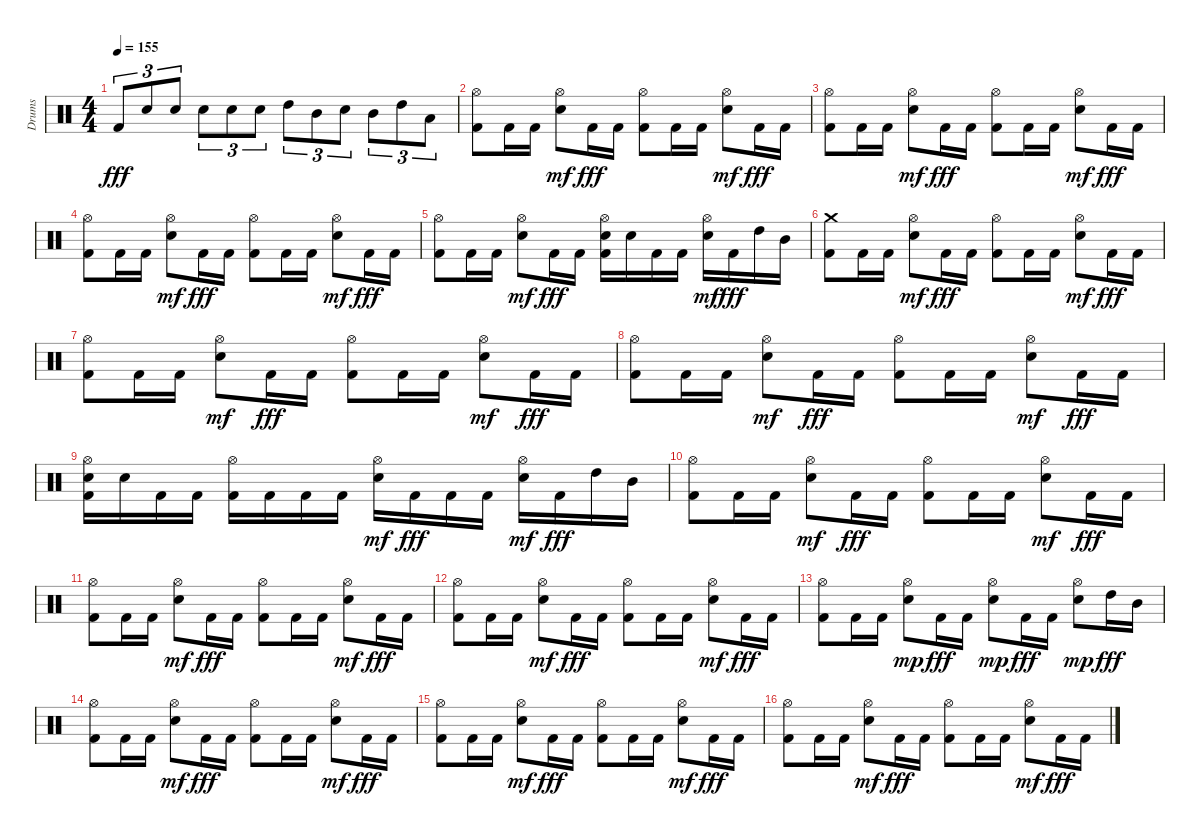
\track ("Drums" "Drums") {instrument percussion}
\staff {score}
\articulation defaults
\ts (4 4)
\tempo 155
\clef neutral
\ks c "Kick (hit) 2".8{tu (3 2) dy fff} "Electric Snare (hit)".8{tu (3 2)} "Electric Snare (hit)".8{tu (3 2)} "Electric Snare (hit)".8{tu (3 2)} "Electric Snare (hit)".8{tu (3 2)} "Electric Snare (hit)".8{tu (3 2)} "High Tom (hit)".8{tu (3 2)} "Mid Tom (hit)".8{tu (3 2)} "Electric Snare (hit)".8{tu (3 2)} "Mid Tom (hit)".8{tu (3 2)} "High Tom (hit)".8{tu (3 2)} "Low Tom (hit)".8{tu (3 2)}
|
("Hi-Hat (open)" "Kick (hit) 2").8 "Kick (hit) 2".16 "Kick (hit) 2".16 ("Electric Snare (hit)" "Hi-Hat (open)").8{dy mf} "Kick (hit) 2".16{dy fff} "Kick (hit) 2".16 ("Hi-Hat (open)" "Kick (hit) 2").8 "Kick (hit) 2".16 "Kick (hit) 2".16 ("Electric Snare (hit)" "Hi-Hat (open)").8{dy mf} "Kick (hit) 2".16{dy fff} "Kick (hit) 2".16 |
("Hi-Hat (open)" "Kick (hit) 2").8 "Kick (hit) 2".16 "Kick (hit) 2".16 ("Electric Snare (hit)" "Hi-Hat (open)").8{dy mf} "Kick (hit) 2".16{dy fff} "Kick (hit) 2".16 ("Hi-Hat (open)" "Kick (hit) 2").8 "Kick (hit) 2".16 "Kick (hit) 2".16 ("Electric Snare (hit)" "Hi-Hat (open)").8{dy mf} "Kick (hit) 2".16{dy fff} "Kick (hit) 2".16 |
("Hi-Hat (open)" "Kick (hit) 2").8 "Kick (hit) 2".16 "Kick (hit) 2".16 ("Electric Snare (hit)" "Hi-Hat (open)").8{dy mf} "Kick (hit) 2".16{dy fff} "Kick (hit) 2".16 ("Hi-Hat (open)" "Kick (hit) 2").8 "Kick (hit) 2".16 "Kick (hit) 2".16 ("Electric Snare (hit)" "Hi-Hat (open)").8{dy mf} "Kick (hit) 2".16{dy fff} "Kick (hit) 2".16 |
("Hi-Hat (open)" "Kick (hit) 2").8 "Kick (hit) 2".16 "Kick (hit) 2".16 ("Electric Snare (hit)" "Hi-Hat (open)").8{dy mf} "Kick (hit) 2".16{dy fff} "Kick (hit) 2".16 ("Electric Snare (hit)" "Hi-Hat (open)" "Kick (hit) 2").16 "Electric Snare (hit)".16 "Kick (hit) 2".16 "Kick (hit) 2".16 ("Electric Snare (hit)" "Hi-Hat (open)").16{dy mf} "Kick (hit) 2".16{dy fff} "High Tom (hit)".16 "Mid Tom (hit)".16 |
("Crash medium (hit)" "Kick (hit) 2").8 "Kick (hit) 2".16 "Kick (hit) 2".16 ("Electric Snare (hit)" "Hi-Hat (open)").8{dy mf} "Kick (hit) 2".16{dy fff} "Kick (hit) 2".16 ("Hi-Hat (open)" "Kick (hit) 2").8 "Kick (hit) 2".16 "Kick (hit) 2".16 ("Electric Snare (hit)" "Hi-Hat (open)").8{dy mf} "Kick (hit) 2".16{dy fff} "Kick (hit) 2".16 |
("Hi-Hat (open)" "Kick (hit) 2").8 "Kick (hit) 2".16 "Kick (hit) 2".16 ("Electric Snare (hit)" "Hi-Hat (open)").8{dy mf} "Kick (hit) 2".16{dy fff} "Kick (hit) 2".16 ("Hi-Hat (open)" "Kick (hit) 2").8 "Kick (hit) 2".16 "Kick (hit) 2".16 ("Electric Snare (hit)" "Hi-Hat (open)").8{dy mf} "Kick (hit) 2".16{dy fff} "Kick (hit) 2".16 |
("Hi-Hat (open)" "Kick (hit) 2").8 "Kick (hit) 2".16 "Kick (hit) 2".16 ("Electric Snare (hit)" "Hi-Hat (open)").8{dy mf} "Kick (hit) 2".16{dy fff} "Kick (hit) 2".16 ("Hi-Hat (open)" "Kick (hit) 2").8 "Kick (hit) 2".16 "Kick (hit) 2".16 ("Electric Snare (hit)" "Hi-Hat (open)").8{dy mf} "Kick (hit) 2".16{dy fff} "Kick (hit) 2".16 |
("Electric Snare (hit)" "Hi-Hat (open)" "Kick (hit) 2").16 "Electric Snare (hit)".16 "Kick (hit) 2".16 "Kick (hit) 2".16 ("Hi-Hat (open)" "Kick (hit) 2").16 "Kick (hit) 2".16 "Kick (hit) 2".16 "Kick (hit) 2".16 ("Electric Snare (hit)" "Hi-Hat (open)").16{dy mf} "Kick (hit) 2".16{dy fff} "Kick (hit) 2".16 "Kick (hit) 2".16 ("Electric Snare (hit)" "Hi-Hat (open)").16{dy mf} "Kick (hit) 2".16{dy fff} "High Tom (hit)".16 "Mid Tom (hit)".16 |
("Hi-Hat (open)" "Kick (hit) 2").8 "Kick (hit) 2".16 "Kick (hit) 2".16 ("Electric Snare (hit)" "Hi-Hat (open)").8{dy mf} "Kick (hit) 2".16{dy fff} "Kick (hit) 2".16 ("Hi-Hat (open)" "Kick (hit) 2").8 "Kick (hit) 2".16 "Kick (hit) 2".16 ("Electric Snare (hit)" "Hi-Hat (open)").8{dy mf} "Kick (hit) 2".16{dy fff} "Kick (hit) 2".16 |
("Hi-Hat (open)" "Kick (hit) 2").8 "Kick (hit) 2".16 "Kick (hit) 2".16 ("Electric Snare (hit)" "Hi-Hat (open)").8{dy mf} "Kick (hit) 2".16{dy fff} "Kick (hit) 2".16 ("Hi-Hat (open)" "Kick (hit) 2").8 "Kick (hit) 2".16 "Kick (hit) 2".16 ("Electric Snare (hit)" "Hi-Hat (open)").8{dy mf} "Kick (hit) 2".16{dy fff} "Kick (hit) 2".16 |
("Hi-Hat (open)" "Kick (hit) 2").8 "Kick (hit) 2".16 "Kick (hit) 2".16 ("Electric Snare (hit)" "Hi-Hat (open)").8{dy mf} "Kick (hit) 2".16{dy fff} "Kick (hit) 2".16 ("Hi-Hat (open)" "Kick (hit) 2").8 "Kick (hit) 2".16 "Kick (hit) 2".16 ("Electric Snare (hit)" "Hi-Hat (open)").8{dy mf} "Kick (hit) 2".16{dy fff} "Kick (hit) 2".16 |
("Hi-Hat (open)" "Kick (hit) 2").8 "Kick (hit) 2".16 "Kick (hit) 2".16 ("Electric Snare (hit)" "Hi-Hat (open)").8{dy mp} "Kick (hit) 2".16{dy fff} "Kick (hit) 2".16 ("Electric Snare (hit)" "Hi-Hat (open)").8{dy mp} "Kick (hit) 2".16{dy fff} "Kick (hit) 2".16 ("Electric Snare (hit)" "Hi-Hat (open)").8{dy mp} "High Tom (hit)".16{dy fff} "Mid Tom (hit)".16 |
("Hi-Hat (open)" "Kick (hit) 2").8 "Kick (hit) 2".16 "Kick (hit) 2".16 ("Electric Snare (hit)" "Hi-Hat (open)").8{dy mf} "Kick (hit) 2".16{dy fff} "Kick (hit) 2".16 ("Hi-Hat (open)" "Kick (hit) 2").8 "Kick (hit) 2".16 "Kick (hit) 2".16 ("Electric Snare (hit)" "Hi-Hat (open)").8{dy mf} "Kick (hit) 2".16{dy fff} "Kick (hit) 2".16 |
("Hi-Hat (open)" "Kick (hit) 2").8 "Kick (hit) 2".16 "Kick (hit) 2".16 ("Electric Snare (hit)" "Hi-Hat (open)").8{dy mf} "Kick (hit) 2".16{dy fff} "Kick (hit) 2".16 ("Hi-Hat (open)" "Kick (hit) 2").8 "Kick (hit) 2".16 "Kick (hit) 2".16 ("Electric Snare (hit)" "Hi-Hat (open)").8{dy mf} "Kick (hit) 2".16{dy fff} "Kick (hit) 2".16 |
("Hi-Hat (open)" "Kick (hit) 2").8 "Kick (hit) 2".16 "Kick (hit) 2".16 ("Electric Snare (hit)" "Hi-Hat (open)").8{dy mf} "Kick (hit) 2".16{dy fff} "Kick (hit) 2".16 ("Hi-Hat (open)" "Kick (hit) 2").8 "Kick (hit) 2".16 "Kick (hit) 2".16 ("Electric Snare (hit)" "Hi-Hat (open)").8{dy mf} "Kick (hit) 2".16{dy fff} "Kick (hit) 2".16
